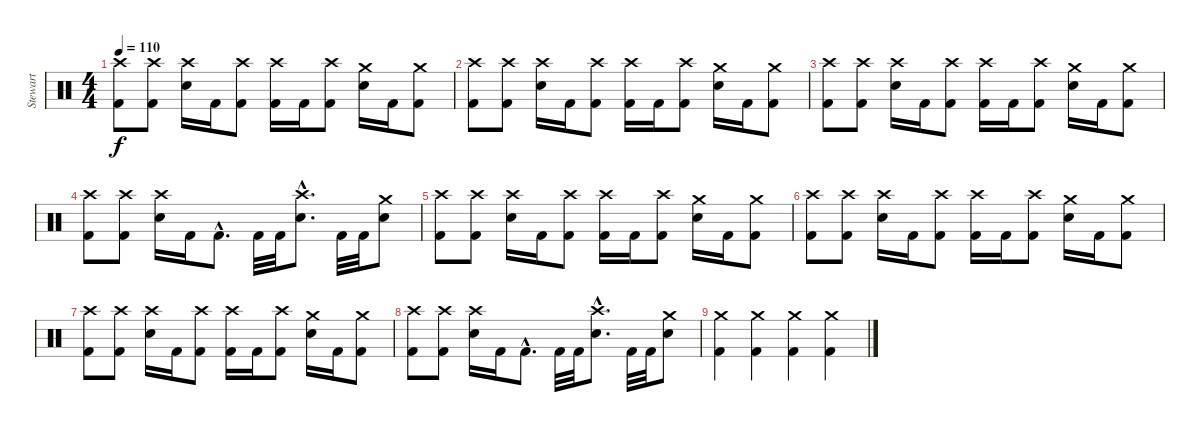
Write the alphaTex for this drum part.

\track ("Stewart" "Stewart") {instrument percussion}
\staff {score}
\articulation defaults
\ts (4 4)
\tempo 110
\clef neutral
\ks c
("Crash high (hit)" "Kick (hit) 2").8{dy f} ("Crash high (hit)" "Kick (hit) 2").8 ("Crash high (hit)" "Electric Snare (hit)").16 "Kick (hit) 2".16 ("Crash high (hit)" "Kick (hit) 2").8 ("Crash high (hit)" "Kick (hit) 2").16 "Kick (hit) 2".16 ("Crash high (hit)" "Kick (hit) 2").8 ("Crash medium (hit)" "Electric Snare (hit)").16 "Kick (hit) 2".16 ("Crash medium (hit)" "Kick (hit) 2").8 |
("Crash high (hit)" "Kick (hit) 2").8 ("Crash high (hit)" "Kick (hit) 2").8 ("Crash high (hit)" "Electric Snare (hit)").16 "Kick (hit) 2".16 ("Crash high (hit)" "Kick (hit) 2").8 ("Crash high (hit)" "Kick (hit) 2").16 "Kick (hit) 2".16 ("Crash high (hit)" "Kick (hit) 2").8 ("Crash medium (hit)" "Electric Snare (hit)").16 "Kick (hit) 2".16 ("Crash medium (hit)" "Kick (hit) 2").8 |
("Crash high (hit)" "Kick (hit) 2").8 ("Crash high (hit)" "Kick (hit) 2").8 ("Crash high (hit)" "Electric Snare (hit)").16 "Kick (hit) 2".16 ("Crash high (hit)" "Kick (hit) 2").8 ("Crash high (hit)" "Kick (hit) 2").16 "Kick (hit) 2".16 ("Crash high (hit)" "Kick (hit) 2").8 ("Crash medium (hit)" "Electric Snare (hit)").16 "Kick (hit) 2".16 ("Crash medium (hit)" "Kick (hit) 2").8 |
("Crash high (hit)" "Kick (hit) 2").8 ("Crash high (hit)" "Kick (hit) 2").8 ("Crash high (hit)" "Electric Snare (hit)").16 "Kick (hit) 2".16 "Kick (hit) 2"{hac}.8{d} "Kick (hit) 2".32 "Kick (hit) 2".32 ("Crash high (hit)"{hac} "Snare (hit) 2"{hac}).8{d} "Kick (hit) 2".32 "Kick (hit) 2".32 ("Crash medium (hit)" "Snare (hit) 2").8 |
("Crash high (hit)" "Kick (hit) 2").8 ("Crash high (hit)" "Kick (hit) 2").8 ("Crash high (hit)" "Electric Snare (hit)").16 "Kick (hit) 2".16 ("Crash high (hit)" "Kick (hit) 2").8 ("Crash high (hit)" "Kick (hit) 2").16 "Kick (hit) 2".16 ("Crash high (hit)" "Kick (hit) 2").8 ("Crash medium (hit)" "Electric Snare (hit)").16 "Kick (hit) 2".16 ("Crash medium (hit)" "Kick (hit) 2").8 |
("Crash high (hit)" "Kick (hit) 2").8 ("Crash high (hit)" "Kick (hit) 2").8 ("Crash high (hit)" "Electric Snare (hit)").16 "Kick (hit) 2".16 ("Crash high (hit)" "Kick (hit) 2").8 ("Crash high (hit)" "Kick (hit) 2").16 "Kick (hit) 2".16 ("Crash high (hit)" "Kick (hit) 2").8 ("Crash medium (hit)" "Electric Snare (hit)").16 "Kick (hit) 2".16 ("Crash medium (hit)" "Kick (hit) 2").8 |
("Crash high (hit)" "Kick (hit) 2").8 ("Crash high (hit)" "Kick (hit) 2").8 ("Crash high (hit)" "Electric Snare (hit)").16 "Kick (hit) 2".16 ("Crash high (hit)" "Kick (hit) 2").8 ("Crash high (hit)" "Kick (hit) 2").16 "Kick (hit) 2".16 ("Crash high (hit)" "Kick (hit) 2").8 ("Crash medium (hit)" "Electric Snare (hit)").16 "Kick (hit) 2".16 ("Crash medium (hit)" "Kick (hit) 2").8 |
("Crash high (hit)" "Kick (hit) 2").8 ("Crash high (hit)" "Kick (hit) 2").8 ("Crash high (hit)" "Electric Snare (hit)").16 "Kick (hit) 2".16 "Kick (hit) 2"{hac}.8{d} "Kick (hit) 2".32 "Kick (hit) 2".32 ("Crash high (hit)"{hac} "Electric Snare (hit)"{hac}).8{d} "Kick (hit) 2".32 "Kick (hit) 2".32 ("Crash medium (hit)" "Electric Snare (hit)").8 |
("Crash medium (hit)" "Kick (hit) 2").4 ("Crash medium (hit)" "Kick (hit) 2").4 ("Crash medium (hit)" "Kick (hit) 2").4 ("Crash medium (hit)" "Kick (hit) 2").4
